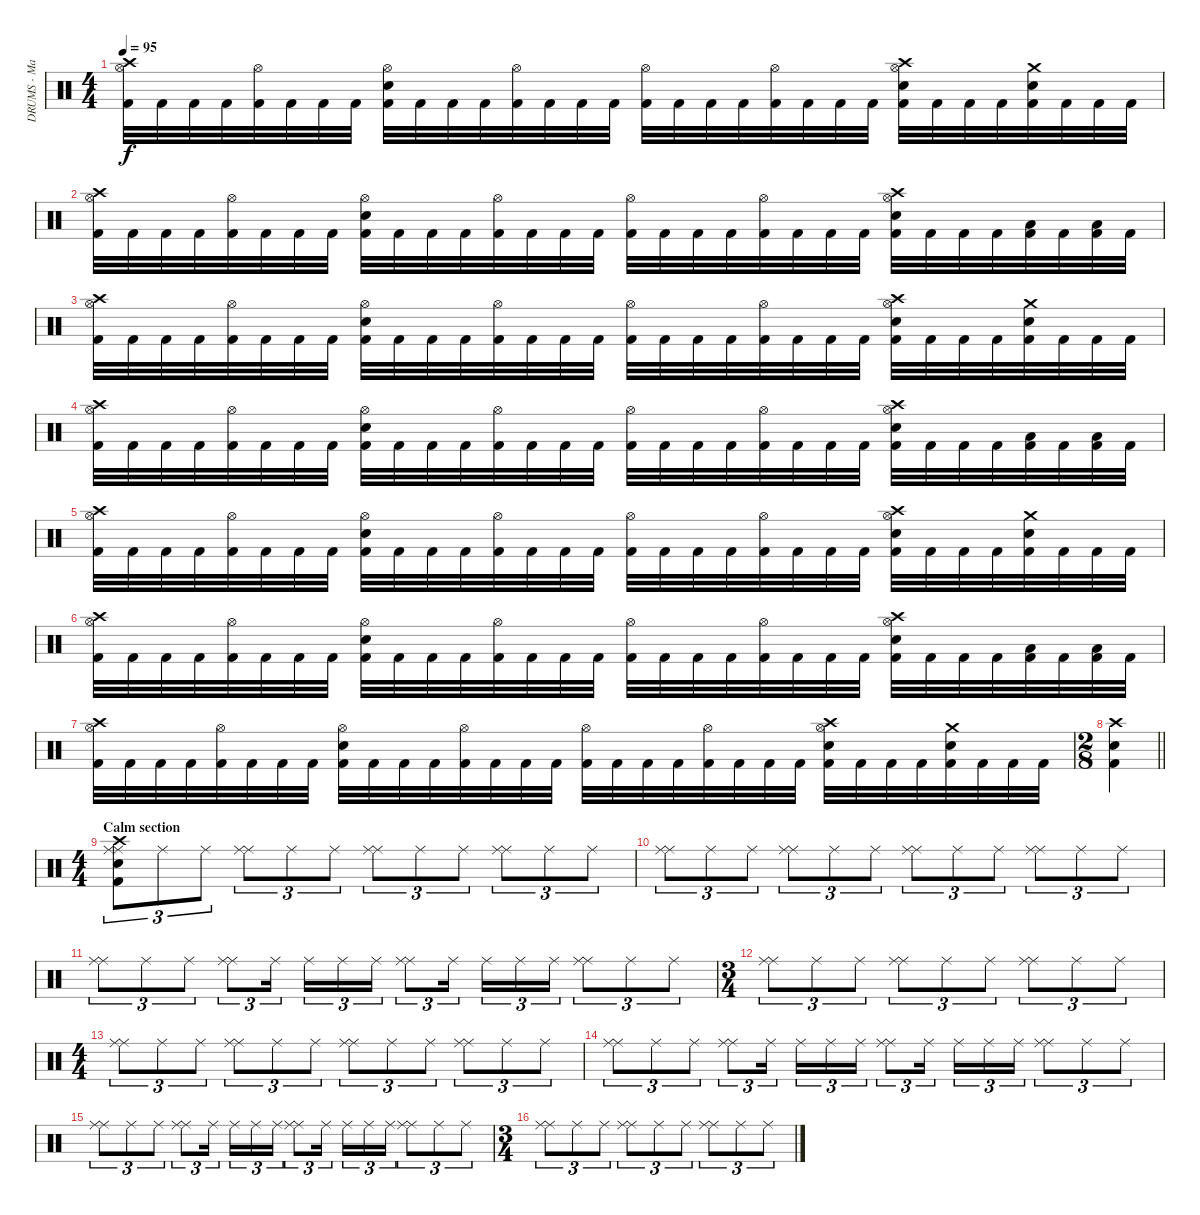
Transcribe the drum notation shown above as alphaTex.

\track ("DRUMS - Mario Duplantier" "DRUMS - Ma") {instrument percussion}
\staff {score}
\articulation defaults
\ts (4 4)
\tempo 95
\clef neutral
\ks c
("Crash high (hit)" "Hi-Hat (open)" "Kick (hit) 2").32{dy f} "Kick (hit) 2".32 "Kick (hit) 2".32 "Kick (hit) 2".32 ("Hi-Hat (open)" "Kick (hit) 2").32 "Kick (hit) 2".32 "Kick (hit) 2".32 "Kick (hit) 2".32 ("Hi-Hat (open)" "Electric Snare (hit)" "Kick (hit) 2").32 "Kick (hit) 2".32 "Kick (hit) 2".32 "Kick (hit) 2".32 ("Hi-Hat (open)" "Kick (hit) 2").32 "Kick (hit) 2".32 "Kick (hit) 2".32 "Kick (hit) 2".32 ("Hi-Hat (open)" "Kick (hit) 2").32 "Kick (hit) 2".32 "Kick (hit) 2".32 "Kick (hit) 2".32 ("Hi-Hat (open)" "Kick (hit) 2").32 "Kick (hit) 2".32 "Kick (hit) 2".32 "Kick (hit) 2".32 ("Crash high (hit)" "Hi-Hat (open)" "Electric Snare (hit)" "Kick (hit) 2").32 "Kick (hit) 2".32 "Kick (hit) 2".32 "Kick (hit) 2".32 ("Crash medium (hit)" "Electric Snare (hit)" "Kick (hit) 2").32 "Kick (hit) 2".32 "Kick (hit) 2".32 "Kick (hit) 2".32 |
("Crash high (hit)" "Hi-Hat (open)" "Kick (hit) 2").32 "Kick (hit) 2".32 "Kick (hit) 2".32 "Kick (hit) 2".32 ("Hi-Hat (open)" "Kick (hit) 2").32 "Kick (hit) 2".32 "Kick (hit) 2".32 "Kick (hit) 2".32 ("Hi-Hat (open)" "Electric Snare (hit)" "Kick (hit) 2").32 "Kick (hit) 2".32 "Kick (hit) 2".32 "Kick (hit) 2".32 ("Hi-Hat (open)" "Kick (hit) 2").32 "Kick (hit) 2".32 "Kick (hit) 2".32 "Kick (hit) 2".32 ("Hi-Hat (open)" "Kick (hit) 2").32 "Kick (hit) 2".32 "Kick (hit) 2".32 "Kick (hit) 2".32 ("Hi-Hat (open)" "Kick (hit) 2").32 "Kick (hit) 2".32 "Kick (hit) 2".32 "Kick (hit) 2".32 ("Crash high (hit)" "Hi-Hat (open)" "Electric Snare (hit)" "Kick (hit) 2").32 "Kick (hit) 2".32 "Kick (hit) 2".32 "Kick (hit) 2".32 ("Low Tom (hit)" "Kick (hit) 2").32 "Kick (hit) 2".32 ("Low Tom (hit)" "Kick (hit) 2").32 "Kick (hit) 2".32 |
("Crash high (hit)" "Hi-Hat (open)" "Kick (hit) 2").32 "Kick (hit) 2".32 "Kick (hit) 2".32 "Kick (hit) 2".32 ("Hi-Hat (open)" "Kick (hit) 2").32 "Kick (hit) 2".32 "Kick (hit) 2".32 "Kick (hit) 2".32 ("Hi-Hat (open)" "Electric Snare (hit)" "Kick (hit) 2").32 "Kick (hit) 2".32 "Kick (hit) 2".32 "Kick (hit) 2".32 ("Hi-Hat (open)" "Kick (hit) 2").32 "Kick (hit) 2".32 "Kick (hit) 2".32 "Kick (hit) 2".32 ("Hi-Hat (open)" "Kick (hit) 2").32 "Kick (hit) 2".32 "Kick (hit) 2".32 "Kick (hit) 2".32 ("Hi-Hat (open)" "Kick (hit) 2").32 "Kick (hit) 2".32 "Kick (hit) 2".32 "Kick (hit) 2".32 ("Crash high (hit)" "Hi-Hat (open)" "Electric Snare (hit)" "Kick (hit) 2").32 "Kick (hit) 2".32 "Kick (hit) 2".32 "Kick (hit) 2".32 ("Crash medium (hit)" "Electric Snare (hit)" "Kick (hit) 2").32 "Kick (hit) 2".32 "Kick (hit) 2".32 "Kick (hit) 2".32 |
("Crash high (hit)" "Hi-Hat (open)" "Kick (hit) 2").32 "Kick (hit) 2".32 "Kick (hit) 2".32 "Kick (hit) 2".32 ("Hi-Hat (open)" "Kick (hit) 2").32 "Kick (hit) 2".32 "Kick (hit) 2".32 "Kick (hit) 2".32 ("Hi-Hat (open)" "Electric Snare (hit)" "Kick (hit) 2").32 "Kick (hit) 2".32 "Kick (hit) 2".32 "Kick (hit) 2".32 ("Hi-Hat (open)" "Kick (hit) 2").32 "Kick (hit) 2".32 "Kick (hit) 2".32 "Kick (hit) 2".32 ("Hi-Hat (open)" "Kick (hit) 2").32 "Kick (hit) 2".32 "Kick (hit) 2".32 "Kick (hit) 2".32 ("Hi-Hat (open)" "Kick (hit) 2").32 "Kick (hit) 2".32 "Kick (hit) 2".32 "Kick (hit) 2".32 ("Crash high (hit)" "Hi-Hat (open)" "Electric Snare (hit)" "Kick (hit) 2").32 "Kick (hit) 2".32 "Kick (hit) 2".32 "Kick (hit) 2".32 ("Low Tom (hit)" "Kick (hit) 2").32 "Kick (hit) 2".32 ("Low Tom (hit)" "Kick (hit) 2").32 "Kick (hit) 2".32 |
("Crash high (hit)" "Hi-Hat (open)" "Kick (hit) 2").32 "Kick (hit) 2".32 "Kick (hit) 2".32 "Kick (hit) 2".32 ("Hi-Hat (open)" "Kick (hit) 2").32 "Kick (hit) 2".32 "Kick (hit) 2".32 "Kick (hit) 2".32 ("Hi-Hat (open)" "Electric Snare (hit)" "Kick (hit) 2").32 "Kick (hit) 2".32 "Kick (hit) 2".32 "Kick (hit) 2".32 ("Hi-Hat (open)" "Kick (hit) 2").32 "Kick (hit) 2".32 "Kick (hit) 2".32 "Kick (hit) 2".32 ("Hi-Hat (open)" "Kick (hit) 2").32 "Kick (hit) 2".32 "Kick (hit) 2".32 "Kick (hit) 2".32 ("Hi-Hat (open)" "Kick (hit) 2").32 "Kick (hit) 2".32 "Kick (hit) 2".32 "Kick (hit) 2".32 ("Crash high (hit)" "Hi-Hat (open)" "Electric Snare (hit)" "Kick (hit) 2").32 "Kick (hit) 2".32 "Kick (hit) 2".32 "Kick (hit) 2".32 ("Crash medium (hit)" "Electric Snare (hit)" "Kick (hit) 2").32 "Kick (hit) 2".32 "Kick (hit) 2".32 "Kick (hit) 2".32 |
("Crash high (hit)" "Hi-Hat (open)" "Kick (hit) 2").32 "Kick (hit) 2".32 "Kick (hit) 2".32 "Kick (hit) 2".32 ("Hi-Hat (open)" "Kick (hit) 2").32 "Kick (hit) 2".32 "Kick (hit) 2".32 "Kick (hit) 2".32 ("Hi-Hat (open)" "Electric Snare (hit)" "Kick (hit) 2").32 "Kick (hit) 2".32 "Kick (hit) 2".32 "Kick (hit) 2".32 ("Hi-Hat (open)" "Kick (hit) 2").32 "Kick (hit) 2".32 "Kick (hit) 2".32 "Kick (hit) 2".32 ("Hi-Hat (open)" "Kick (hit) 2").32 "Kick (hit) 2".32 "Kick (hit) 2".32 "Kick (hit) 2".32 ("Hi-Hat (open)" "Kick (hit) 2").32 "Kick (hit) 2".32 "Kick (hit) 2".32 "Kick (hit) 2".32 ("Crash high (hit)" "Hi-Hat (open)" "Electric Snare (hit)" "Kick (hit) 2").32 "Kick (hit) 2".32 "Kick (hit) 2".32 "Kick (hit) 2".32 ("Low Tom (hit)" "Kick (hit) 2").32 "Kick (hit) 2".32 ("Low Tom (hit)" "Kick (hit) 2").32 "Kick (hit) 2".32 |
("Crash high (hit)" "Hi-Hat (open)" "Kick (hit) 2").32 "Kick (hit) 2".32 "Kick (hit) 2".32 "Kick (hit) 2".32 ("Hi-Hat (open)" "Kick (hit) 2").32 "Kick (hit) 2".32 "Kick (hit) 2".32 "Kick (hit) 2".32 ("Hi-Hat (open)" "Electric Snare (hit)" "Kick (hit) 2").32 "Kick (hit) 2".32 "Kick (hit) 2".32 "Kick (hit) 2".32 ("Hi-Hat (open)" "Kick (hit) 2").32 "Kick (hit) 2".32 "Kick (hit) 2".32 "Kick (hit) 2".32 ("Hi-Hat (open)" "Kick (hit) 2").32 "Kick (hit) 2".32 "Kick (hit) 2".32 "Kick (hit) 2".32 ("Hi-Hat (open)" "Kick (hit) 2").32 "Kick (hit) 2".32 "Kick (hit) 2".32 "Kick (hit) 2".32 ("Crash high (hit)" "Hi-Hat (open)" "Electric Snare (hit)" "Kick (hit) 2").32 "Kick (hit) 2".32 "Kick (hit) 2".32 "Kick (hit) 2".32 ("Crash medium (hit)" "Electric Snare (hit)" "Kick (hit) 2").32 "Kick (hit) 2".32 "Kick (hit) 2".32 "Kick (hit) 2".32 |
\ts (2 8)
\barLineRight lightlight
("Crash high (hit)" "Electric Snare (hit)" "Kick (hit) 2").4 |
\ts (4 4)
\section ("" "Calm section")
("Crash high (hit)" "Ride (middle)" "Ride (middle)" "Electric Snare (hit)" "Kick (hit) 2").8{tu (3 2)} "Ride (middle)".8{tu (3 2)} "Ride (middle)".8{tu (3 2)} ("Ride (middle)" "Ride (middle)").8{tu (3 2)} "Ride (middle)".8{tu (3 2)} "Ride (middle)".8{tu (3 2)} ("Ride (middle)" "Ride (middle)").8{tu (3 2)} "Ride (middle)".8{tu (3 2)} "Ride (middle)".8{tu (3 2)} ("Ride (middle)" "Ride (middle)").8{tu (3 2)} "Ride (middle)".8{tu (3 2)} "Ride (middle)".8{tu (3 2)} |
("Ride (middle)" "Ride (middle)").8{tu (3 2)} "Ride (middle)".8{tu (3 2)} "Ride (middle)".8{tu (3 2)} ("Ride (middle)" "Ride (middle)").8{tu (3 2)} "Ride (middle)".8{tu (3 2)} "Ride (middle)".8{tu (3 2)} ("Ride (middle)" "Ride (middle)").8{tu (3 2)} "Ride (middle)".8{tu (3 2)} "Ride (middle)".8{tu (3 2)} ("Ride (middle)" "Ride (middle)").8{tu (3 2)} "Ride (middle)".8{tu (3 2)} "Ride (middle)".8{tu (3 2)} |
("Ride (middle)" "Ride (middle)").8{tu (3 2)} "Ride (middle)".8{tu (3 2)} "Ride (middle)".8{tu (3 2)} ("Ride (middle)" "Ride (middle)").8{tu (3 2)} "Ride (middle)".16{tu (3 2) beam splitsecondary} "Ride (middle)".16{tu (3 2)} "Ride (middle)".16{tu (3 2)} "Ride (middle)".16{tu (3 2)} ("Ride (middle)" "Ride (middle)").8{tu (3 2)} "Ride (middle)".16{tu (3 2) beam splitsecondary} "Ride (middle)".16{tu (3 2)} "Ride (middle)".16{tu (3 2)} "Ride (middle)".16{tu (3 2)} ("Ride (middle)" "Ride (middle)").8{tu (3 2)} "Ride (middle)".8{tu (3 2)} "Ride (middle)".8{tu (3 2)} |
\ts (3 4)
("Ride (middle)" "Ride (middle)").8{tu (3 2)} "Ride (middle)".8{tu (3 2)} "Ride (middle)".8{tu (3 2)} ("Ride (middle)" "Ride (middle)").8{tu (3 2)} "Ride (middle)".8{tu (3 2)} "Ride (middle)".8{tu (3 2)} ("Ride (middle)" "Ride (middle)").8{tu (3 2)} "Ride (middle)".8{tu (3 2)} "Ride (middle)".8{tu (3 2)} |
\ts (4 4)
("Ride (middle)" "Ride (middle)").8{tu (3 2)} "Ride (middle)".8{tu (3 2)} "Ride (middle)".8{tu (3 2)} ("Ride (middle)" "Ride (middle)").8{tu (3 2)} "Ride (middle)".8{tu (3 2)} "Ride (middle)".8{tu (3 2)} ("Ride (middle)" "Ride (middle)").8{tu (3 2)} "Ride (middle)".8{tu (3 2)} "Ride (middle)".8{tu (3 2)} ("Ride (middle)" "Ride (middle)").8{tu (3 2)} "Ride (middle)".8{tu (3 2)} "Ride (middle)".8{tu (3 2)} |
("Ride (middle)" "Ride (middle)").8{tu (3 2)} "Ride (middle)".8{tu (3 2)} "Ride (middle)".8{tu (3 2)} ("Ride (middle)" "Ride (middle)").8{tu (3 2)} "Ride (middle)".16{tu (3 2) beam splitsecondary} "Ride (middle)".16{tu (3 2)} "Ride (middle)".16{tu (3 2)} "Ride (middle)".16{tu (3 2)} ("Ride (middle)" "Ride (middle)").8{tu (3 2)} "Ride (middle)".16{tu (3 2) beam splitsecondary} "Ride (middle)".16{tu (3 2)} "Ride (middle)".16{tu (3 2)} "Ride (middle)".16{tu (3 2)} ("Ride (middle)" "Ride (middle)").8{tu (3 2)} "Ride (middle)".8{tu (3 2)} "Ride (middle)".8{tu (3 2)} |
("Ride (middle)" "Ride (middle)").8{tu (3 2)} "Ride (middle)".8{tu (3 2)} "Ride (middle)".8{tu (3 2)} ("Ride (middle)" "Ride (middle)").8{tu (3 2)} "Ride (middle)".16{tu (3 2) beam splitsecondary} "Ride (middle)".16{tu (3 2)} "Ride (middle)".16{tu (3 2)} "Ride (middle)".16{tu (3 2)} ("Ride (middle)" "Ride (middle)").8{tu (3 2)} "Ride (middle)".16{tu (3 2) beam splitsecondary} "Ride (middle)".16{tu (3 2)} "Ride (middle)".16{tu (3 2)} "Ride (middle)".16{tu (3 2)} ("Ride (middle)" "Ride (middle)").8{tu (3 2)} "Ride (middle)".8{tu (3 2)} "Ride (middle)".8{tu (3 2)} |
\ts (3 4)
("Ride (middle)" "Ride (middle)").8{tu (3 2)} "Ride (middle)".8{tu (3 2)} "Ride (middle)".8{tu (3 2)} ("Ride (middle)" "Ride (middle)").8{tu (3 2)} "Ride (middle)".8{tu (3 2)} "Ride (middle)".8{tu (3 2)} ("Ride (middle)" "Ride (middle)").8{tu (3 2)} "Ride (middle)".8{tu (3 2)} "Ride (middle)".8{tu (3 2)}
